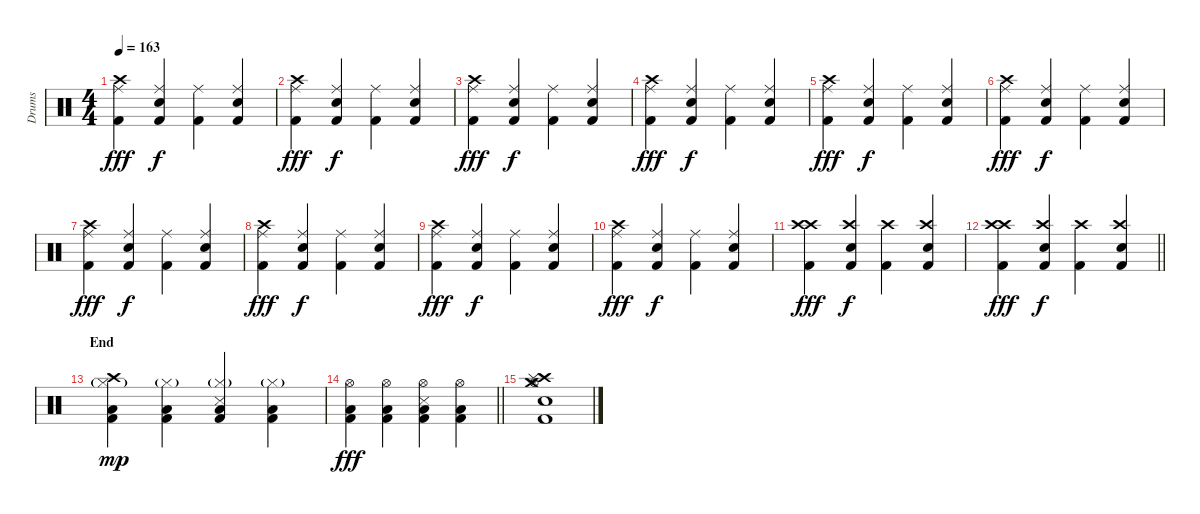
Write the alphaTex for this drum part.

\track ("Drums" "Drums") {instrument percussion}
\staff {score}
\articulation defaults
\ts (4 4)
\tempo 163
\clef neutral
\ks c
("Kick (hit) 2" "Crash high (hit)" "Ride (middle)").4{dy fff} ("Kick (hit) 2" "Snare (hit) 2" "Ride (middle)").4{dy f} ("Kick (hit) 2" "Ride (middle)").4 ("Kick (hit) 2" "Snare (hit) 2" "Ride (middle)").4 |
("Kick (hit) 2" "Crash high (hit)" "Ride (middle)").4{dy fff} ("Kick (hit) 2" "Snare (hit) 2" "Ride (middle)").4{dy f} ("Kick (hit) 2" "Ride (middle)").4 ("Kick (hit) 2" "Snare (hit) 2" "Ride (middle)").4 |
("Kick (hit) 2" "Crash high (hit)" "Ride (middle)").4{dy fff} ("Kick (hit) 2" "Snare (hit) 2" "Ride (middle)").4{dy f} ("Kick (hit) 2" "Ride (middle)").4 ("Kick (hit) 2" "Snare (hit) 2" "Ride (middle)").4 |
("Kick (hit) 2" "Crash high (hit)" "Ride (middle)").4{dy fff} ("Kick (hit) 2" "Snare (hit) 2" "Ride (middle)").4{dy f} ("Kick (hit) 2" "Ride (middle)").4 ("Kick (hit) 2" "Snare (hit) 2" "Ride (middle)").4 |
("Kick (hit) 2" "Crash high (hit)" "Ride (middle)").4{dy fff} ("Kick (hit) 2" "Snare (hit) 2" "Ride (middle)").4{dy f} ("Kick (hit) 2" "Ride (middle)").4 ("Kick (hit) 2" "Snare (hit) 2" "Ride (middle)").4 |
("Kick (hit) 2" "Crash high (hit)" "Ride (middle)").4{dy fff} ("Kick (hit) 2" "Snare (hit) 2" "Ride (middle)").4{dy f} ("Kick (hit) 2" "Ride (middle)").4 ("Kick (hit) 2" "Snare (hit) 2" "Ride (middle)").4 |
("Kick (hit) 2" "Crash high (hit)" "Ride (middle)").4{dy fff} ("Kick (hit) 2" "Snare (hit) 2" "Ride (middle)").4{dy f} ("Kick (hit) 2" "Ride (middle)").4 ("Kick (hit) 2" "Snare (hit) 2" "Ride (middle)").4 |
("Kick (hit) 2" "Crash high (hit)" "Ride (middle)").4{dy fff} ("Kick (hit) 2" "Snare (hit) 2" "Ride (middle)").4{dy f} ("Kick (hit) 2" "Ride (middle)").4 ("Kick (hit) 2" "Snare (hit) 2" "Ride (middle)").4 |
("Kick (hit) 2" "Crash high (hit)" "Ride (middle)").4{dy fff} ("Kick (hit) 2" "Snare (hit) 2" "Ride (middle)").4{dy f} ("Kick (hit) 2" "Ride (middle)").4 ("Kick (hit) 2" "Snare (hit) 2" "Ride (middle)").4 |
("Kick (hit) 2" "Crash high (hit)" "Ride (middle)").4{dy fff} ("Kick (hit) 2" "Snare (hit) 2" "Ride (middle)").4{dy f} ("Kick (hit) 2" "Ride (middle)").4 ("Kick (hit) 2" "Snare (hit) 2" "Ride (middle)").4 |
("Kick (hit) 2" "Crash high (hit)" "Crash high (hit)").4{dy fff} ("Kick (hit) 2" "Snare (hit) 2" "Crash high (hit)").4{dy f} ("Kick (hit) 2" "Crash high (hit)").4 ("Kick (hit) 2" "Snare (hit) 2" "Crash high (hit)").4 |
\barLineRight lightlight
("Kick (hit) 2" "Crash high (hit)" "Crash high (hit)").4{dy fff} ("Kick (hit) 2" "Snare (hit) 2" "Crash high (hit)").4{dy f} ("Kick (hit) 2" "Crash high (hit)").4 ("Kick (hit) 2" "Snare (hit) 2" "Crash high (hit)").4 |
\section ("" "End")
("Kick (hit) 2" "Low Floor Tom (hit)" "Crash high (hit)" "Hi-Hat (closed)"{g}).4{dy mp} ("Kick (hit) 2" "Low Floor Tom (hit)" "Hi-Hat (closed)"{g}).4 ("Kick (hit) 2" "Low Floor Tom (hit)" "Metronome (hit)" "Hi-Hat (closed)"{g}).4 ("Kick (hit) 2" "Low Floor Tom (hit)" "Hi-Hat (closed)"{g}).4 |
\barLineRight lightlight
("Kick (hit) 2" "Low Floor Tom (hit)" "Hi-Hat (open)").4{dy fff} ("Kick (hit) 2" "Low Floor Tom (hit)" "Hi-Hat (open)").4 ("Kick (hit) 2" "Low Floor Tom (hit)" "Metronome (hit)" "Hi-Hat (open)").4 ("Kick (hit) 2" "Low Floor Tom (hit)" "Hi-Hat (open)").4 |
("Kick (hit) 2" "Crash high (hit)" "Crash medium (hit)" "Splash (hit)" "Snare (hit) 2" "Hi-Hat (open)").1
